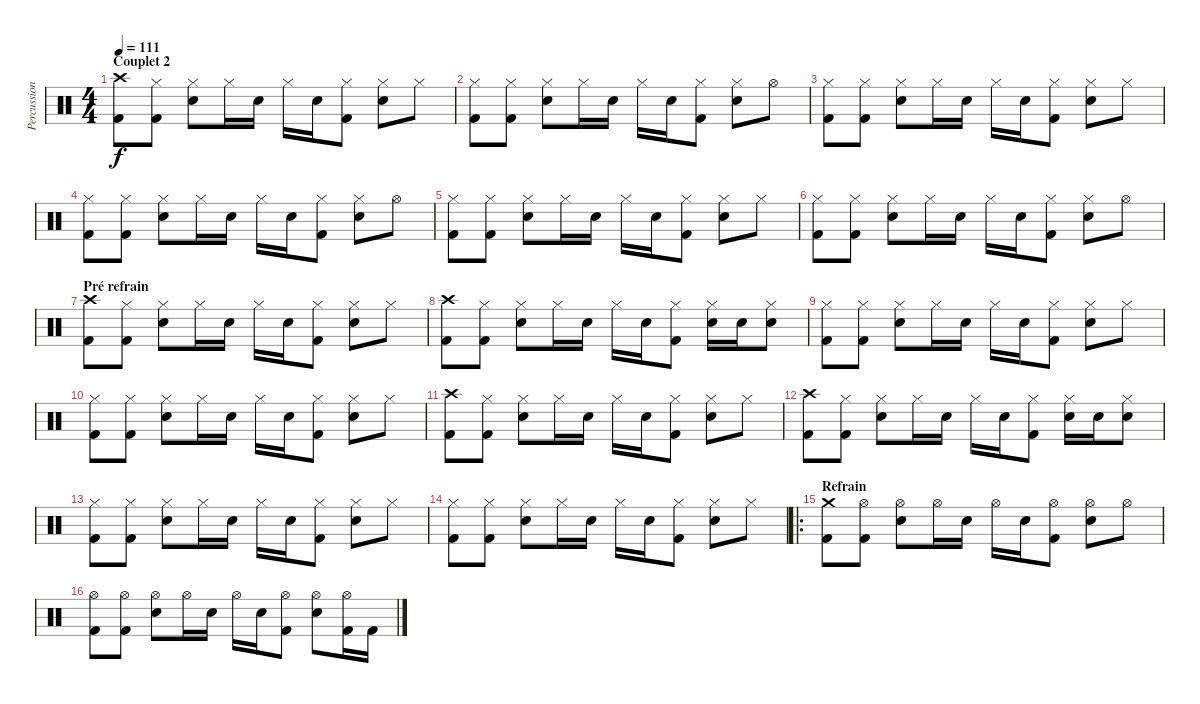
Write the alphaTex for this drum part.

\track ("Percussions" "Percussion") {instrument percussion}
\staff {score}
\articulation defaults
\ts (4 4)
\section ("" "Couplet 2")
\tempo 111
\clef neutral
\ks c
("Crash high (hit)" "Kick (hit) 2").8{dy f} ("Hi-Hat (closed)" "Kick (hit) 2").8 ("Hi-Hat (closed)" "Electric Snare (hit)").8 "Hi-Hat (closed)".16 "Electric Snare (hit)".16 "Hi-Hat (closed)".16 "Electric Snare (hit)".16 ("Hi-Hat (closed)" "Kick (hit) 2").8 ("Hi-Hat (closed)" "Electric Snare (hit)").8 "Hi-Hat (closed)".8 |
("Hi-Hat (closed)" "Kick (hit) 2").8 ("Hi-Hat (closed)" "Kick (hit) 2").8 ("Hi-Hat (closed)" "Electric Snare (hit)").8 "Hi-Hat (closed)".16 "Electric Snare (hit)".16 "Hi-Hat (closed)".16 "Electric Snare (hit)".16 ("Hi-Hat (closed)" "Kick (hit) 2").8 ("Hi-Hat (closed)" "Electric Snare (hit)").8 "Hi-Hat (open)".8 |
("Hi-Hat (closed)" "Kick (hit) 2").8 ("Hi-Hat (closed)" "Kick (hit) 2").8 ("Hi-Hat (closed)" "Electric Snare (hit)").8 "Hi-Hat (closed)".16 "Electric Snare (hit)".16 "Hi-Hat (closed)".16 "Electric Snare (hit)".16 ("Hi-Hat (closed)" "Kick (hit) 2").8 ("Hi-Hat (closed)" "Electric Snare (hit)").8 "Hi-Hat (closed)".8 |
("Hi-Hat (closed)" "Kick (hit) 2").8 ("Hi-Hat (closed)" "Kick (hit) 2").8 ("Hi-Hat (closed)" "Electric Snare (hit)").8 "Hi-Hat (closed)".16 "Electric Snare (hit)".16 "Hi-Hat (closed)".16 "Electric Snare (hit)".16 ("Hi-Hat (closed)" "Kick (hit) 2").8 ("Hi-Hat (closed)" "Electric Snare (hit)").8 "Hi-Hat (open)".8 |
("Hi-Hat (closed)" "Kick (hit) 2").8 ("Hi-Hat (closed)" "Kick (hit) 2").8 ("Hi-Hat (closed)" "Electric Snare (hit)").8 "Hi-Hat (closed)".16 "Electric Snare (hit)".16 "Hi-Hat (closed)".16 "Electric Snare (hit)".16 ("Hi-Hat (closed)" "Kick (hit) 2").8 ("Hi-Hat (closed)" "Electric Snare (hit)").8 "Hi-Hat (closed)".8 |
("Hi-Hat (closed)" "Kick (hit) 2").8 ("Hi-Hat (closed)" "Kick (hit) 2").8 ("Hi-Hat (closed)" "Electric Snare (hit)").8 "Hi-Hat (closed)".16 "Electric Snare (hit)".16 "Hi-Hat (closed)".16 "Electric Snare (hit)".16 ("Hi-Hat (closed)" "Kick (hit) 2").8 ("Hi-Hat (closed)" "Electric Snare (hit)").8 "Hi-Hat (open)".8 |
\section ("" "Pré refrain")
("Crash high (hit)" "Kick (hit) 2").8 ("Hi-Hat (closed)" "Kick (hit) 2").8 ("Hi-Hat (closed)" "Electric Snare (hit)").8 "Hi-Hat (closed)".16 "Electric Snare (hit)".16 "Hi-Hat (closed)".16 "Electric Snare (hit)".16 ("Hi-Hat (closed)" "Kick (hit) 2").8 ("Hi-Hat (closed)" "Electric Snare (hit)").8 "Hi-Hat (closed)".8 |
("Crash high (hit)" "Kick (hit) 2").8 ("Hi-Hat (closed)" "Kick (hit) 2").8 ("Hi-Hat (closed)" "Electric Snare (hit)").8 "Hi-Hat (closed)".16 "Electric Snare (hit)".16 "Hi-Hat (closed)".16 "Electric Snare (hit)".16 ("Hi-Hat (closed)" "Kick (hit) 2").8 ("Hi-Hat (closed)" "Electric Snare (hit)").16 "Electric Snare (hit)".16 ("Hi-Hat (closed)" "Electric Snare (hit)").8 |
("Hi-Hat (closed)" "Kick (hit) 2").8 ("Hi-Hat (closed)" "Kick (hit) 2").8 ("Hi-Hat (closed)" "Electric Snare (hit)").8 "Hi-Hat (closed)".16 "Electric Snare (hit)".16 "Hi-Hat (closed)".16 "Electric Snare (hit)".16 ("Hi-Hat (closed)" "Kick (hit) 2").8 ("Hi-Hat (closed)" "Electric Snare (hit)").8 "Hi-Hat (closed)".8 |
("Hi-Hat (closed)" "Kick (hit) 2").8 ("Hi-Hat (closed)" "Kick (hit) 2").8 ("Hi-Hat (closed)" "Electric Snare (hit)").8 "Hi-Hat (closed)".16 "Electric Snare (hit)".16 "Hi-Hat (closed)".16 "Electric Snare (hit)".16 ("Hi-Hat (closed)" "Kick (hit) 2").8 ("Hi-Hat (closed)" "Electric Snare (hit)").8 "Hi-Hat (closed)".8 |
("Crash high (hit)" "Kick (hit) 2").8 ("Hi-Hat (closed)" "Kick (hit) 2").8 ("Hi-Hat (closed)" "Electric Snare (hit)").8 "Hi-Hat (closed)".16 "Electric Snare (hit)".16 "Hi-Hat (closed)".16 "Electric Snare (hit)".16 ("Hi-Hat (closed)" "Kick (hit) 2").8 ("Hi-Hat (closed)" "Electric Snare (hit)").8 "Hi-Hat (closed)".8 |
("Crash high (hit)" "Kick (hit) 2").8 ("Hi-Hat (closed)" "Kick (hit) 2").8 ("Hi-Hat (closed)" "Electric Snare (hit)").8 "Hi-Hat (closed)".16 "Electric Snare (hit)".16 "Hi-Hat (closed)".16 "Electric Snare (hit)".16 ("Hi-Hat (closed)" "Kick (hit) 2").8 ("Hi-Hat (closed)" "Electric Snare (hit)").16 "Electric Snare (hit)".16 ("Hi-Hat (closed)" "Electric Snare (hit)").8 |
("Hi-Hat (closed)" "Kick (hit) 2").8 ("Hi-Hat (closed)" "Kick (hit) 2").8 ("Hi-Hat (closed)" "Electric Snare (hit)").8 "Hi-Hat (closed)".16 "Electric Snare (hit)".16 "Hi-Hat (closed)".16 "Electric Snare (hit)".16 ("Hi-Hat (closed)" "Kick (hit) 2").8 ("Hi-Hat (closed)" "Electric Snare (hit)").8 "Hi-Hat (closed)".8 |
("Hi-Hat (closed)" "Kick (hit) 2").8 ("Hi-Hat (closed)" "Kick (hit) 2").8 ("Hi-Hat (closed)" "Electric Snare (hit)").8 "Hi-Hat (closed)".16 "Electric Snare (hit)".16 "Hi-Hat (closed)".16 "Electric Snare (hit)".16 ("Hi-Hat (closed)" "Kick (hit) 2").8 ("Hi-Hat (closed)" "Electric Snare (hit)").8 "Hi-Hat (closed)".8 |
\ro
\section ("" "Refrain")
("Crash medium (hit)" "Kick (hit) 2").8 ("Hi-Hat (open)" "Kick (hit) 2").8 ("Hi-Hat (open)" "Electric Snare (hit)").8 "Hi-Hat (open)".16 "Electric Snare (hit)".16 "Hi-Hat (open)".16 "Electric Snare (hit)".16 ("Hi-Hat (open)" "Kick (hit) 2").8 ("Hi-Hat (open)" "Electric Snare (hit)").8 "Hi-Hat (open)".8 |
("Hi-Hat (open)" "Kick (hit) 2").8 ("Hi-Hat (open)" "Kick (hit) 2").8 ("Hi-Hat (open)" "Electric Snare (hit)").8 "Hi-Hat (open)".16 "Electric Snare (hit)".16 "Hi-Hat (open)".16 "Electric Snare (hit)".16 ("Hi-Hat (open)" "Kick (hit) 2").8 ("Hi-Hat (open)" "Electric Snare (hit)").8 ("Hi-Hat (open)" "Kick (hit) 2").16 "Kick (hit) 2".16
